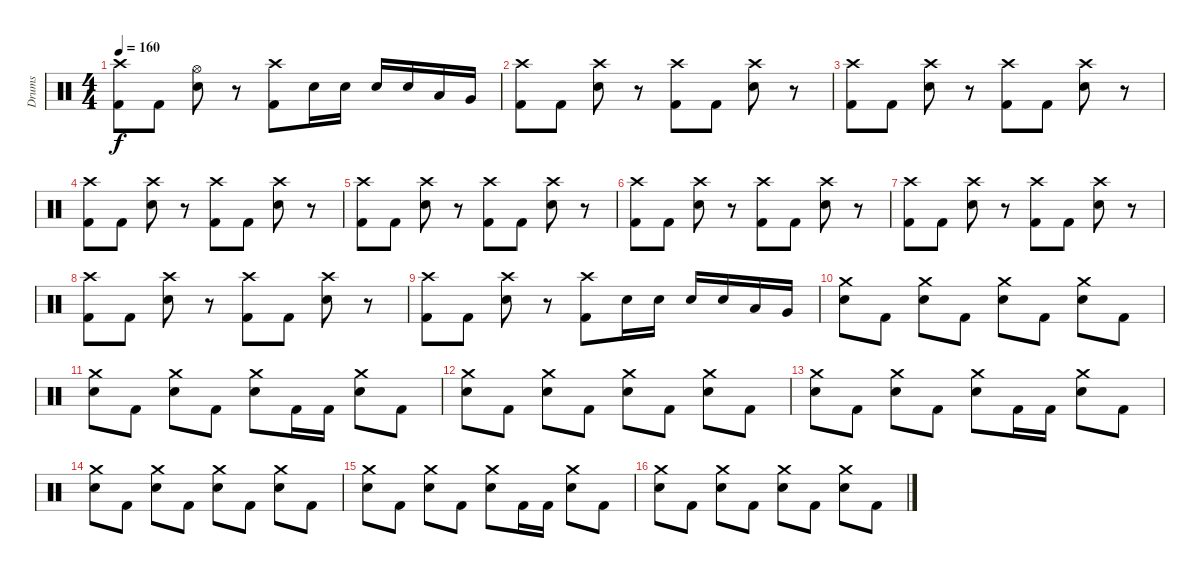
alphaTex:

\track ("Drums" "Drums") {instrument percussion}
\staff {score}
\articulation defaults
\ts (4 4)
\tempo 160
\clef neutral
\ks c
("Crash high (hit)" "Kick (hit) 2").8{dy f} "Kick (hit) 2".8 ("Hi-Hat (open)" "Electric Snare (hit)").8 r.8 ("Crash high (hit)" "Kick (hit) 2").8 "Electric Snare (hit)".16 "Electric Snare (hit)".16 "Electric Snare (hit)".16 "Electric Snare (hit)".16 "Low Tom (hit)".16 "Very Low Tom (hit)".16 |
("Crash high (hit)" "Kick (hit) 2").8 "Kick (hit) 2".8 ("Crash high (hit)" "Electric Snare (hit)").8 r.8 ("Crash high (hit)" "Kick (hit) 2").8 "Kick (hit) 2".8 ("Crash high (hit)" "Electric Snare (hit)").8 r.8 |
("Crash high (hit)" "Kick (hit) 2").8 "Kick (hit) 2".8 ("Crash high (hit)" "Electric Snare (hit)").8 r.8 ("Crash high (hit)" "Kick (hit) 2").8 "Kick (hit) 2".8 ("Crash high (hit)" "Electric Snare (hit)").8 r.8 |
("Crash high (hit)" "Kick (hit) 2").8 "Kick (hit) 2".8 ("Crash high (hit)" "Electric Snare (hit)").8 r.8 ("Crash high (hit)" "Kick (hit) 2").8 "Kick (hit) 2".8 ("Crash high (hit)" "Electric Snare (hit)").8 r.8 |
("Crash high (hit)" "Kick (hit) 2").8 "Kick (hit) 2".8 ("Crash high (hit)" "Electric Snare (hit)").8 r.8 ("Crash high (hit)" "Kick (hit) 2").8 "Kick (hit) 2".8 ("Crash high (hit)" "Electric Snare (hit)").8 r.8 |
("Crash high (hit)" "Kick (hit) 2").8 "Kick (hit) 2".8 ("Crash high (hit)" "Electric Snare (hit)").8 r.8 ("Crash high (hit)" "Kick (hit) 2").8 "Kick (hit) 2".8 ("Crash high (hit)" "Electric Snare (hit)").8 r.8 |
("Crash high (hit)" "Kick (hit) 2").8 "Kick (hit) 2".8 ("Crash high (hit)" "Electric Snare (hit)").8 r.8 ("Crash high (hit)" "Kick (hit) 2").8 "Kick (hit) 2".8 ("Crash high (hit)" "Electric Snare (hit)").8 r.8 |
("Crash high (hit)" "Kick (hit) 2").8 "Kick (hit) 2".8 ("Crash high (hit)" "Electric Snare (hit)").8 r.8 ("Crash high (hit)" "Kick (hit) 2").8 "Kick (hit) 2".8 ("Crash high (hit)" "Electric Snare (hit)").8 r.8 |
("Crash high (hit)" "Kick (hit) 2").8 "Kick (hit) 2".8 ("Crash high (hit)" "Electric Snare (hit)").8 r.8 ("Crash high (hit)" "Kick (hit) 2").8 "Electric Snare (hit)".16 "Electric Snare (hit)".16 "Electric Snare (hit)".16 "Electric Snare (hit)".16 "Low Tom (hit)".16 "Very Low Tom (hit)".16 |
("Crash medium (hit)" "Electric Snare (hit)").8 "Kick (hit) 2".8 ("Crash medium (hit)" "Electric Snare (hit)").8 "Kick (hit) 2".8 ("Crash medium (hit)" "Electric Snare (hit)").8 "Kick (hit) 2".8 ("Crash medium (hit)" "Electric Snare (hit)").8 "Kick (hit) 2".8 |
("Crash medium (hit)" "Electric Snare (hit)").8 "Kick (hit) 2".8 ("Crash medium (hit)" "Electric Snare (hit)").8 "Kick (hit) 2".8 ("Crash medium (hit)" "Electric Snare (hit)").8 "Kick (hit) 2".16 "Kick (hit) 2".16 ("Crash medium (hit)" "Electric Snare (hit)").8 "Kick (hit) 2".8 |
("Crash medium (hit)" "Electric Snare (hit)").8 "Kick (hit) 2".8 ("Crash medium (hit)" "Electric Snare (hit)").8 "Kick (hit) 2".8 ("Crash medium (hit)" "Electric Snare (hit)").8 "Kick (hit) 2".8 ("Crash medium (hit)" "Electric Snare (hit)").8 "Kick (hit) 2".8 |
("Crash medium (hit)" "Electric Snare (hit)").8 "Kick (hit) 2".8 ("Crash medium (hit)" "Electric Snare (hit)").8 "Kick (hit) 2".8 ("Crash medium (hit)" "Electric Snare (hit)").8 "Kick (hit) 2".16 "Kick (hit) 2".16 ("Crash medium (hit)" "Electric Snare (hit)").8 "Kick (hit) 2".8 |
("Crash medium (hit)" "Electric Snare (hit)").8 "Kick (hit) 2".8 ("Crash medium (hit)" "Electric Snare (hit)").8 "Kick (hit) 2".8 ("Crash medium (hit)" "Electric Snare (hit)").8 "Kick (hit) 2".8 ("Crash medium (hit)" "Electric Snare (hit)").8 "Kick (hit) 2".8 |
("Crash medium (hit)" "Electric Snare (hit)").8 "Kick (hit) 2".8 ("Crash medium (hit)" "Electric Snare (hit)").8 "Kick (hit) 2".8 ("Crash medium (hit)" "Electric Snare (hit)").8 "Kick (hit) 2".16 "Kick (hit) 2".16 ("Crash medium (hit)" "Electric Snare (hit)").8 "Kick (hit) 2".8 |
("Crash medium (hit)" "Electric Snare (hit)").8 "Kick (hit) 2".8 ("Crash medium (hit)" "Electric Snare (hit)").8 "Kick (hit) 2".8 ("Crash medium (hit)" "Electric Snare (hit)").8 "Kick (hit) 2".8 ("Crash medium (hit)" "Electric Snare (hit)").8 "Kick (hit) 2".8
